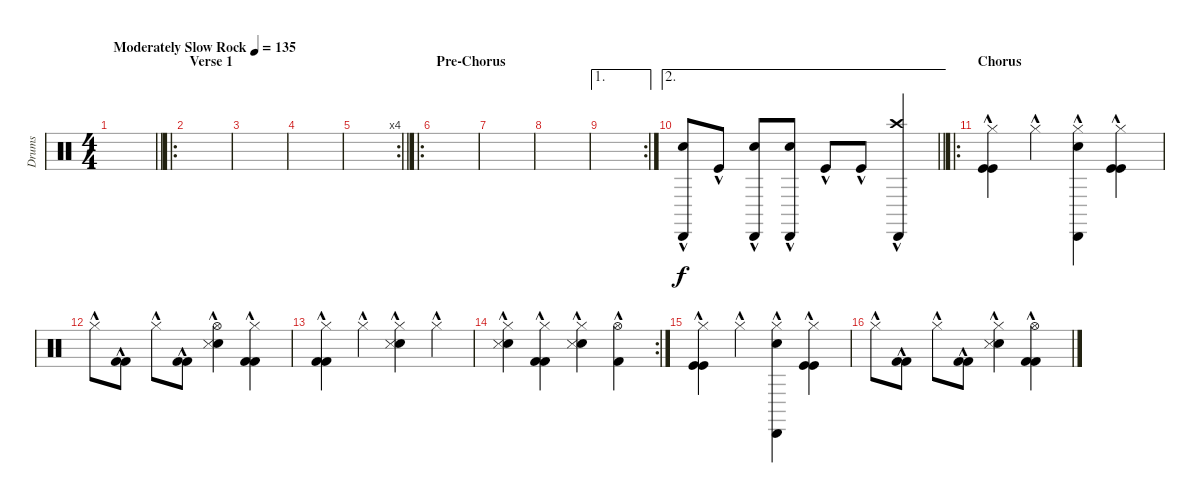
\track ("Drums" "Drums") {instrument percussion}
\staff {score}
\articulation defaults
\ts (4 4)
\tempo (135 "Moderately Slow Rock")
\clef neutral
\barLineRight lightlight
\ks c
|
\ro
\section ("" "Verse 1")
|
|
|
\rc 4
\barLineRight lightlight
|
\ro
\section ("" "Pre-Chorus")
|
|
|
\ae 1
\rc 2
|
\ae 2
\barLineRight lightlight
("Electric Snare (hit)"{hac} "Cabasa (hit)"{hac}).8 "Kick (hit)"{hac}.8 ("Electric Snare (hit)"{hac} "Cabasa (hit)"{hac}).8 ("Electric Snare (hit)"{hac} "Cabasa (hit)"{hac}).8 "Kick (hit)"{hac}.8 "Kick (hit)"{hac}.8 ("Cabasa (hit)"{hac} "Crash high (hit)"{hac}).4 |
\ro
\section ("" "Chorus")
("Hi-Hat (closed)"{hac} "Kick (hit)"{hac} "Kick (hit)"{hac}).4 "Hi-Hat (closed)"{hac}.4 ("Hi-Hat (closed)"{hac} "Cabasa (hit)"{hac} "Electric Snare (hit)"{hac}).4 ("Hi-Hat (closed)"{hac} "Kick (hit)"{hac} "Kick (hit)"{hac}).4 |
"Hi-Hat (closed)"{hac}.8 ("Kick (hit) 2"{hac} "Kick (hit) 2"{hac}).8 "Hi-Hat (closed)"{hac}.8 ("Kick (hit) 2"{hac} "Kick (hit) 2"{hac}).8 ("Hi-Hat (open)"{hac} "Electric Snare (hit)"{hac} "Snare (side stick) 3"{hac}).4 ("Hi-Hat (closed)" "Kick (hit) 2"{hac} "Kick (hit) 2"{hac}).4 |
("Hi-Hat (closed)"{hac} "Kick (hit) 2"{hac} "Kick (hit) 2"{hac}).4 "Hi-Hat (closed)"{hac}.4 ("Hi-Hat (closed)"{hac} "Electric Snare (hit)"{hac} "Snare (side stick) 3"{hac}).4 "Hi-Hat (closed)"{hac}.4 |
\rc 2
("Hi-Hat (closed)"{hac} "Electric Snare (hit)"{hac} "Snare (side stick) 3"{hac}).4 ("Hi-Hat (closed)"{hac} "Kick (hit) 2"{hac} "Kick (hit) 2"{hac}).4 ("Hi-Hat (closed)"{hac} "Electric Snare (hit)"{hac} "Snare (side stick) 3"{hac}).4 ("Hi-Hat (open)"{hac} "Kick (hit) 2"{hac}).4 |
("Hi-Hat (closed)"{hac} "Kick (hit)"{hac} "Kick (hit)"{hac}).4 "Hi-Hat (closed)"{hac}.4 ("Hi-Hat (closed)"{hac} "Cabasa (hit)"{hac} "Electric Snare (hit)"{hac}).4 ("Hi-Hat (closed)"{hac} "Kick (hit)"{hac} "Kick (hit)"{hac}).4 |
"Hi-Hat (closed)"{hac}.8 ("Kick (hit) 2"{hac} "Kick (hit) 2"{hac}).8 "Hi-Hat (closed)"{hac}.8 ("Kick (hit) 2"{hac} "Kick (hit) 2"{hac}).8 ("Hi-Hat (closed)" "Electric Snare (hit)"{hac} "Snare (side stick) 3"{hac}).4 ("Hi-Hat (open)"{hac} "Kick (hit) 2"{hac} "Kick (hit) 2"{hac}).4
